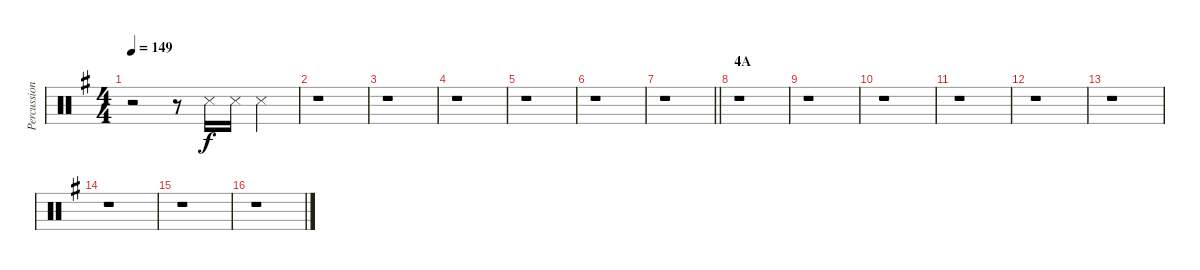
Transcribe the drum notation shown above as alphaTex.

\track ("Percussions" "Percussion") {instrument percussion}
\staff {score}
\articulation defaults
\ts (4 4)
\tempo 149
\clef neutral
\ks g
r.2{dy f} r.8 "Metronome (hit)".16 "Metronome (hit)".16 "Metronome (hit)".4 |
r.1 |
r.1 |
r.1 |
r.1 |
r.1 |
\barLineRight lightlight
r.1 |
\section ("" "4A")
r.1 |
r.1 |
r.1 |
r.1 |
r.1 |
r.1 |
r.1 |
r.1 |
r.1
